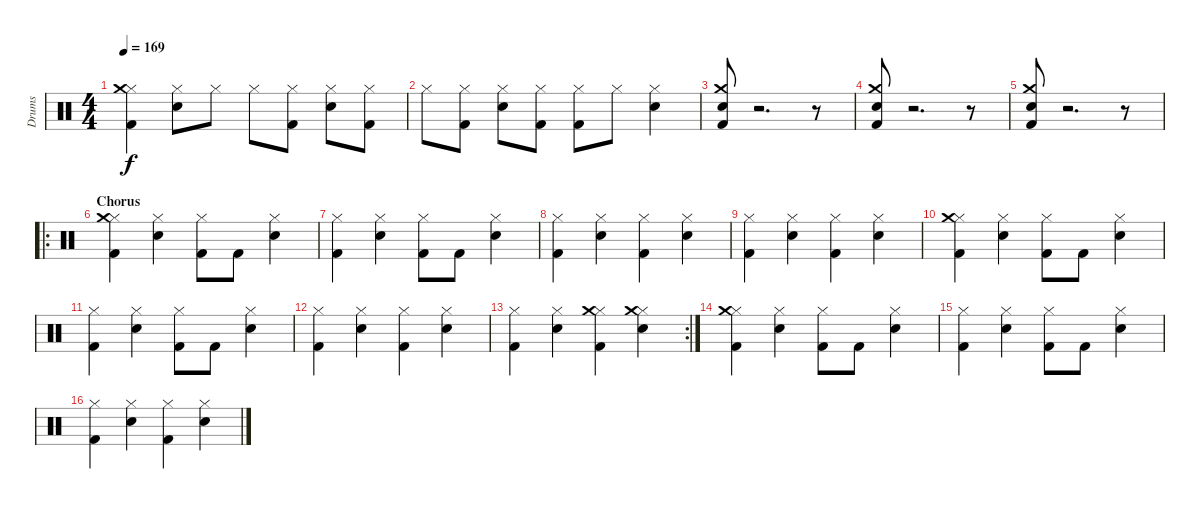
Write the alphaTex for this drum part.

\track ("Drums" "Drums") {instrument percussion}
\staff {score}
\articulation defaults
\ts (4 4)
\tempo 169
\clef neutral
\ks c
("Hi-Hat (closed)" "Kick (hit) 2" "Crash medium (hit)").4{dy f} ("Hi-Hat (closed)" "Snare (hit) 2").8 "Hi-Hat (closed)".8 "Hi-Hat (closed)".8 ("Hi-Hat (closed)" "Kick (hit) 2").8 ("Hi-Hat (closed)" "Snare (hit) 2").8 ("Hi-Hat (closed)" "Kick (hit) 2").8 |
"Hi-Hat (closed)".8 ("Hi-Hat (closed)" "Kick (hit) 2").8 ("Hi-Hat (closed)" "Snare (hit) 2").8 ("Hi-Hat (closed)" "Kick (hit) 2").8 ("Hi-Hat (closed)" "Kick (hit) 2").8 "Hi-Hat (closed)".8 ("Hi-Hat (closed)" "Snare (hit) 2").4 |
("Crash medium (hit)" "Snare (hit) 2" "Kick (hit) 2").8 r.2{d} r.8 |
("Crash medium (hit)" "Snare (hit) 2" "Kick (hit) 2").8 r.2{d} r.8 |
("Crash medium (hit)" "Snare (hit) 2" "Kick (hit) 2").8 r.2{d} r.8 |
\ro
\section ("" "Chorus")
("Hi-Hat (closed)" "Kick (hit) 2" "Crash medium (hit)").4 ("Hi-Hat (closed)" "Snare (hit) 2").4 ("Hi-Hat (closed)" "Kick (hit) 2").8 "Kick (hit) 2".8 ("Hi-Hat (closed)" "Snare (hit) 2").4 |
("Hi-Hat (closed)" "Kick (hit) 2").4 ("Hi-Hat (closed)" "Snare (hit) 2").4 ("Hi-Hat (closed)" "Kick (hit) 2").8 "Kick (hit) 2".8 ("Hi-Hat (closed)" "Snare (hit) 2").4 |
("Hi-Hat (closed)" "Kick (hit) 2").4 ("Hi-Hat (closed)" "Snare (hit) 2").4 ("Hi-Hat (closed)" "Kick (hit) 2").4 ("Hi-Hat (closed)" "Snare (hit) 2").4 |
("Hi-Hat (closed)" "Kick (hit) 2").4 ("Hi-Hat (closed)" "Snare (hit) 2").4 ("Hi-Hat (closed)" "Kick (hit) 2").4 ("Hi-Hat (closed)" "Snare (hit) 2").4 |
("Hi-Hat (closed)" "Kick (hit) 2" "Crash medium (hit)").4 ("Hi-Hat (closed)" "Snare (hit) 2").4 ("Hi-Hat (closed)" "Kick (hit) 2").8 "Kick (hit) 2".8 ("Hi-Hat (closed)" "Snare (hit) 2").4 |
("Hi-Hat (closed)" "Kick (hit) 2").4 ("Hi-Hat (closed)" "Snare (hit) 2").4 ("Hi-Hat (closed)" "Kick (hit) 2").8 "Kick (hit) 2".8 ("Hi-Hat (closed)" "Snare (hit) 2").4 |
("Hi-Hat (closed)" "Kick (hit) 2").4 ("Hi-Hat (closed)" "Snare (hit) 2").4 ("Hi-Hat (closed)" "Kick (hit) 2").4 ("Hi-Hat (closed)" "Snare (hit) 2").4 |
\rc 2
("Hi-Hat (closed)" "Kick (hit) 2").4 ("Hi-Hat (closed)" "Snare (hit) 2").4 ("Hi-Hat (closed)" "Kick (hit) 2" "Crash medium (hit)").4 ("Hi-Hat (closed)" "Snare (hit) 2" "Crash medium (hit)").4 |
("Hi-Hat (closed)" "Kick (hit) 2" "Crash medium (hit)").4 ("Hi-Hat (closed)" "Snare (hit) 2").4 ("Hi-Hat (closed)" "Kick (hit) 2").8 "Kick (hit) 2".8 ("Hi-Hat (closed)" "Snare (hit) 2").4 |
("Hi-Hat (closed)" "Kick (hit) 2").4 ("Hi-Hat (closed)" "Snare (hit) 2").4 ("Hi-Hat (closed)" "Kick (hit) 2").8 "Kick (hit) 2".8 ("Hi-Hat (closed)" "Snare (hit) 2").4 |
("Hi-Hat (closed)" "Kick (hit) 2").4 ("Hi-Hat (closed)" "Snare (hit) 2").4 ("Hi-Hat (closed)" "Kick (hit) 2").4 ("Hi-Hat (closed)" "Snare (hit) 2").4
